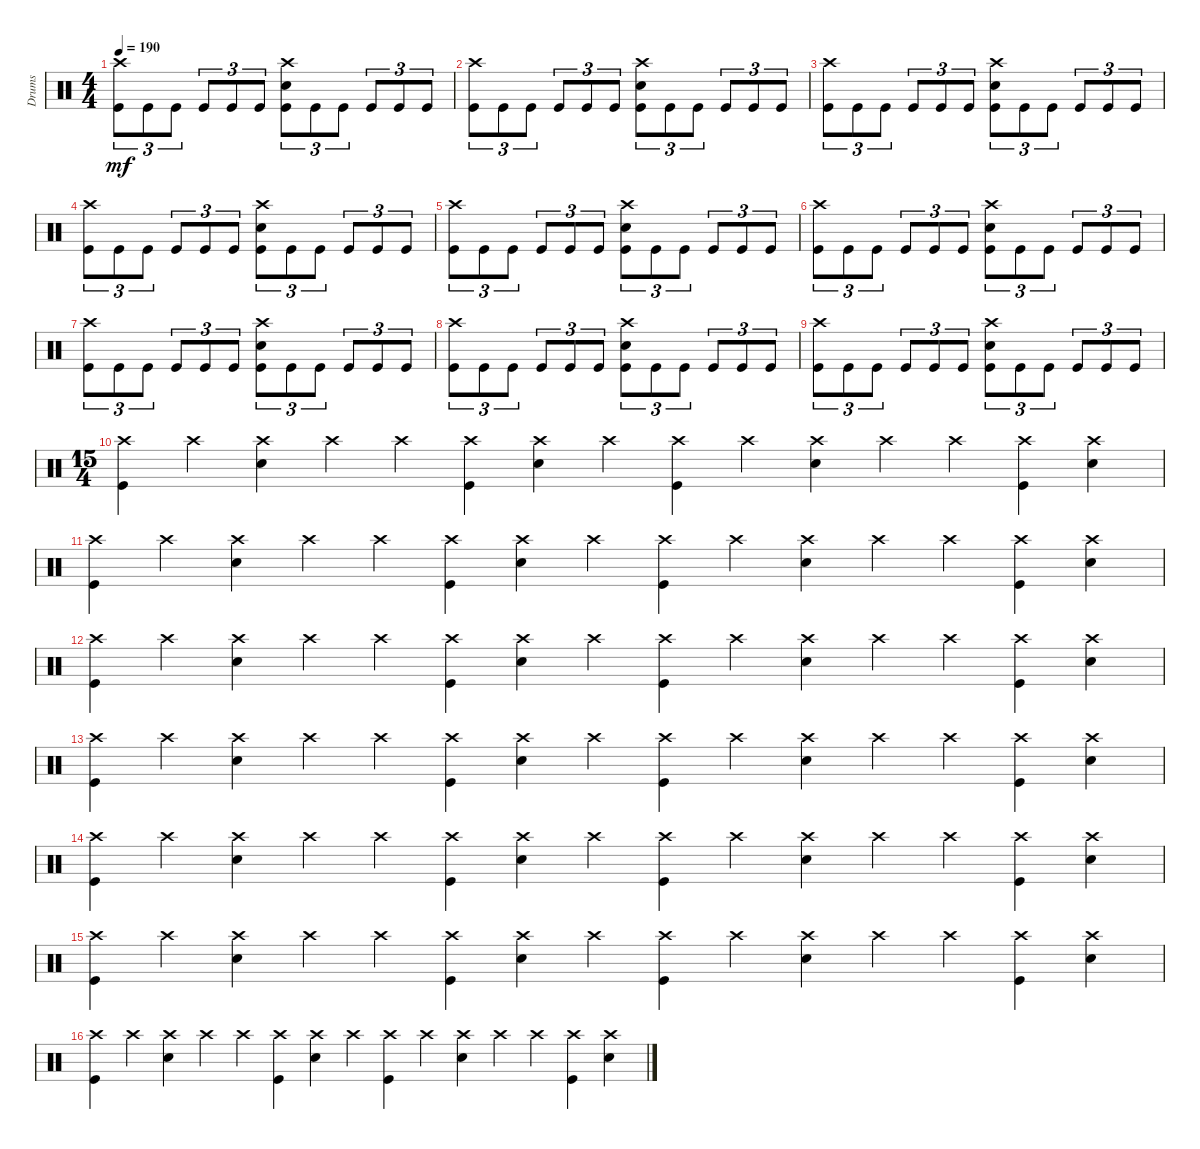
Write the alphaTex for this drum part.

\track ("Drums" "Drums") {instrument percussion}
\staff {score}
\articulation defaults
\ts (4 4)
\tempo 190
\clef neutral
\ks c
("Crash high (hit)" "Kick (hit)").8{tu (3 2) dy mf} "Kick (hit)".8{tu (3 2)} "Kick (hit)".8{tu (3 2)} "Kick (hit)".8{tu (3 2)} "Kick (hit)".8{tu (3 2)} "Kick (hit)".8{tu (3 2)} ("Snare (hit) 2" "Crash high (hit)" "Kick (hit)").8{tu (3 2)} "Kick (hit)".8{tu (3 2)} "Kick (hit)".8{tu (3 2)} "Kick (hit)".8{tu (3 2)} "Kick (hit)".8{tu (3 2)} "Kick (hit)".8{tu (3 2)} |
("Kick (hit)" "Crash high (hit)").8{tu (3 2)} "Kick (hit)".8{tu (3 2)} "Kick (hit)".8{tu (3 2)} "Kick (hit)".8{tu (3 2)} "Kick (hit)".8{tu (3 2)} "Kick (hit)".8{tu (3 2)} ("Kick (hit)" "Snare (hit) 2" "Crash high (hit)").8{tu (3 2)} "Kick (hit)".8{tu (3 2)} "Kick (hit)".8{tu (3 2)} "Kick (hit)".8{tu (3 2)} "Kick (hit)".8{tu (3 2)} "Kick (hit)".8{tu (3 2)} |
("Kick (hit)" "Crash high (hit)").8{tu (3 2)} "Kick (hit)".8{tu (3 2)} "Kick (hit)".8{tu (3 2)} "Kick (hit)".8{tu (3 2)} "Kick (hit)".8{tu (3 2)} "Kick (hit)".8{tu (3 2)} ("Kick (hit)" "Snare (hit) 2" "Crash high (hit)").8{tu (3 2)} "Kick (hit)".8{tu (3 2)} "Kick (hit)".8{tu (3 2)} "Kick (hit)".8{tu (3 2)} "Kick (hit)".8{tu (3 2)} "Kick (hit)".8{tu (3 2)} |
("Kick (hit)" "Crash high (hit)").8{tu (3 2)} "Kick (hit)".8{tu (3 2)} "Kick (hit)".8{tu (3 2)} "Kick (hit)".8{tu (3 2)} "Kick (hit)".8{tu (3 2)} "Kick (hit)".8{tu (3 2)} ("Kick (hit)" "Snare (hit) 2" "Crash high (hit)").8{tu (3 2)} "Kick (hit)".8{tu (3 2)} "Kick (hit)".8{tu (3 2)} "Kick (hit)".8{tu (3 2)} "Kick (hit)".8{tu (3 2)} "Kick (hit)".8{tu (3 2)} |
("Kick (hit)" "Crash high (hit)").8{tu (3 2)} "Kick (hit)".8{tu (3 2)} "Kick (hit)".8{tu (3 2)} "Kick (hit)".8{tu (3 2)} "Kick (hit)".8{tu (3 2)} "Kick (hit)".8{tu (3 2)} ("Kick (hit)" "Snare (hit) 2" "Crash high (hit)").8{tu (3 2)} "Kick (hit)".8{tu (3 2)} "Kick (hit)".8{tu (3 2)} "Kick (hit)".8{tu (3 2)} "Kick (hit)".8{tu (3 2)} "Kick (hit)".8{tu (3 2)} |
("Kick (hit)" "Crash high (hit)").8{tu (3 2)} "Kick (hit)".8{tu (3 2)} "Kick (hit)".8{tu (3 2)} "Kick (hit)".8{tu (3 2)} "Kick (hit)".8{tu (3 2)} "Kick (hit)".8{tu (3 2)} ("Kick (hit)" "Snare (hit) 2" "Crash high (hit)").8{tu (3 2)} "Kick (hit)".8{tu (3 2)} "Kick (hit)".8{tu (3 2)} "Kick (hit)".8{tu (3 2)} "Kick (hit)".8{tu (3 2)} "Kick (hit)".8{tu (3 2)} |
("Kick (hit)" "Crash high (hit)").8{tu (3 2)} "Kick (hit)".8{tu (3 2)} "Kick (hit)".8{tu (3 2)} "Kick (hit)".8{tu (3 2)} "Kick (hit)".8{tu (3 2)} "Kick (hit)".8{tu (3 2)} ("Kick (hit)" "Snare (hit) 2" "Crash high (hit)").8{tu (3 2)} "Kick (hit)".8{tu (3 2)} "Kick (hit)".8{tu (3 2)} "Kick (hit)".8{tu (3 2)} "Kick (hit)".8{tu (3 2)} "Kick (hit)".8{tu (3 2)} |
("Kick (hit)" "Crash high (hit)").8{tu (3 2)} "Kick (hit)".8{tu (3 2)} "Kick (hit)".8{tu (3 2)} "Kick (hit)".8{tu (3 2)} "Kick (hit)".8{tu (3 2)} "Kick (hit)".8{tu (3 2)} ("Kick (hit)" "Snare (hit) 2" "Crash high (hit)").8{tu (3 2)} "Kick (hit)".8{tu (3 2)} "Kick (hit)".8{tu (3 2)} "Kick (hit)".8{tu (3 2)} "Kick (hit)".8{tu (3 2)} "Kick (hit)".8{tu (3 2)} |
("Kick (hit)" "Crash high (hit)").8{tu (3 2)} "Kick (hit)".8{tu (3 2)} "Kick (hit)".8{tu (3 2)} "Kick (hit)".8{tu (3 2)} "Kick (hit)".8{tu (3 2)} "Kick (hit)".8{tu (3 2)} ("Kick (hit)" "Snare (hit) 2" "Crash high (hit)").8{tu (3 2)} "Kick (hit)".8{tu (3 2)} "Kick (hit)".8{tu (3 2)} "Kick (hit)".8{tu (3 2)} "Kick (hit)".8{tu (3 2)} "Kick (hit)".8{tu (3 2)} |
\ts (15 4)
("Crash high (hit)" "Kick (hit)").4 "Crash high (hit)".4 ("Snare (hit) 2" "Crash high (hit)").4 "Crash high (hit)".4 "Crash high (hit)".4 ("Crash high (hit)" "Kick (hit)").4 ("Snare (hit) 2" "Crash high (hit)").4 "Crash high (hit)".4 ("Crash high (hit)" "Kick (hit)").4 "Crash high (hit)".4 ("Snare (hit) 2" "Crash high (hit)").4 "Crash high (hit)".4 "Crash high (hit)".4 ("Crash high (hit)" "Kick (hit)").4 ("Snare (hit) 2" "Crash high (hit)").4 |
("Kick (hit)" "Crash high (hit)").4 "Crash high (hit)".4 ("Snare (hit) 2" "Crash high (hit)").4 "Crash high (hit)".4 "Crash high (hit)".4 ("Kick (hit)" "Crash high (hit)").4 ("Snare (hit) 2" "Crash high (hit)").4 "Crash high (hit)".4 ("Kick (hit)" "Crash high (hit)").4 "Crash high (hit)".4 ("Snare (hit) 2" "Crash high (hit)").4 "Crash high (hit)".4 "Crash high (hit)".4 ("Kick (hit)" "Crash high (hit)").4 ("Snare (hit) 2" "Crash high (hit)").4 |
("Kick (hit)" "Crash high (hit)").4 "Crash high (hit)".4 ("Snare (hit) 2" "Crash high (hit)").4 "Crash high (hit)".4 "Crash high (hit)".4 ("Kick (hit)" "Crash high (hit)").4 ("Snare (hit) 2" "Crash high (hit)").4 "Crash high (hit)".4 ("Kick (hit)" "Crash high (hit)").4 "Crash high (hit)".4 ("Snare (hit) 2" "Crash high (hit)").4 "Crash high (hit)".4 "Crash high (hit)".4 ("Kick (hit)" "Crash high (hit)").4 ("Snare (hit) 2" "Crash high (hit)").4 |
("Crash high (hit)" "Kick (hit)").4 "Crash high (hit)".4 ("Snare (hit) 2" "Crash high (hit)").4 "Crash high (hit)".4 "Crash high (hit)".4 ("Crash high (hit)" "Kick (hit)").4 ("Snare (hit) 2" "Crash high (hit)").4 "Crash high (hit)".4 ("Crash high (hit)" "Kick (hit)").4 "Crash high (hit)".4 ("Snare (hit) 2" "Crash high (hit)").4 "Crash high (hit)".4 "Crash high (hit)".4 ("Crash high (hit)" "Kick (hit)").4 ("Snare (hit) 2" "Crash high (hit)").4 |
("Crash high (hit)" "Kick (hit)").4 "Crash high (hit)".4 ("Snare (hit) 2" "Crash high (hit)").4 "Crash high (hit)".4 "Crash high (hit)".4 ("Crash high (hit)" "Kick (hit)").4 ("Snare (hit) 2" "Crash high (hit)").4 "Crash high (hit)".4 ("Crash high (hit)" "Kick (hit)").4 "Crash high (hit)".4 ("Snare (hit) 2" "Crash high (hit)").4 "Crash high (hit)".4 "Crash high (hit)".4 ("Crash high (hit)" "Kick (hit)").4 ("Snare (hit) 2" "Crash high (hit)").4 |
("Kick (hit)" "Crash high (hit)").4 "Crash high (hit)".4 ("Snare (hit) 2" "Crash high (hit)").4 "Crash high (hit)".4 "Crash high (hit)".4 ("Kick (hit)" "Crash high (hit)").4 ("Snare (hit) 2" "Crash high (hit)").4 "Crash high (hit)".4 ("Kick (hit)" "Crash high (hit)").4 "Crash high (hit)".4 ("Snare (hit) 2" "Crash high (hit)").4 "Crash high (hit)".4 "Crash high (hit)".4 ("Kick (hit)" "Crash high (hit)").4 ("Snare (hit) 2" "Crash high (hit)").4 |
("Kick (hit)" "Crash high (hit)").4 "Crash high (hit)".4 ("Snare (hit) 2" "Crash high (hit)").4 "Crash high (hit)".4 "Crash high (hit)".4 ("Kick (hit)" "Crash high (hit)").4 ("Snare (hit) 2" "Crash high (hit)").4 "Crash high (hit)".4 ("Kick (hit)" "Crash high (hit)").4 "Crash high (hit)".4 ("Snare (hit) 2" "Crash high (hit)").4 "Crash high (hit)".4 "Crash high (hit)".4 ("Kick (hit)" "Crash high (hit)").4 ("Snare (hit) 2" "Crash high (hit)").4
